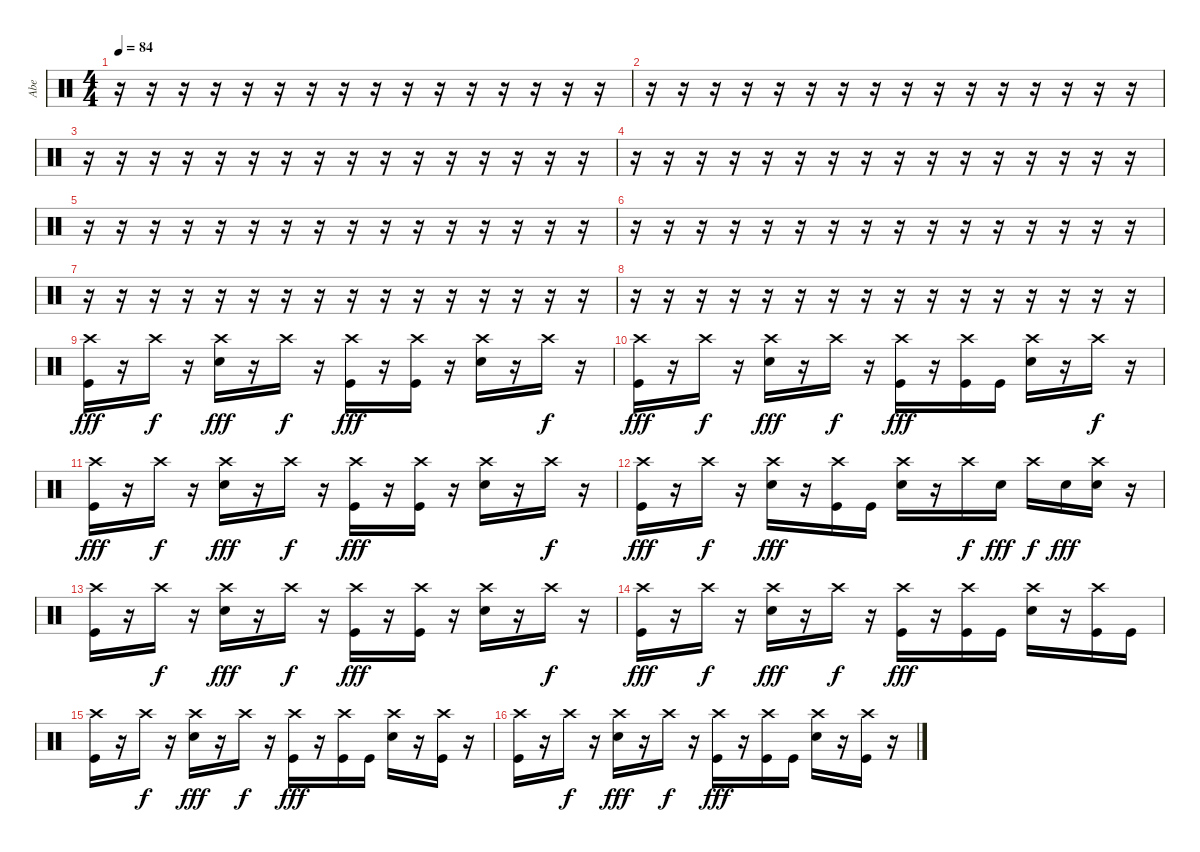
\track ("Abe" "Abe") {instrument percussion}
\staff {score}
\articulation defaults
\ts (4 4)
\tempo 84
\clef neutral
\ks c
r.16{dy f} r.16 r.16 r.16 r.16 r.16 r.16 r.16 r.16 r.16 r.16 r.16 r.16 r.16 r.16 r.16 |
r.16 r.16 r.16 r.16 r.16 r.16 r.16 r.16 r.16 r.16 r.16 r.16 r.16 r.16 r.16 r.16 |
r.16 r.16 r.16 r.16 r.16 r.16 r.16 r.16 r.16 r.16 r.16 r.16 r.16 r.16 r.16 r.16 |
r.16 r.16 r.16 r.16 r.16 r.16 r.16 r.16 r.16 r.16 r.16 r.16 r.16 r.16 r.16 r.16 |
r.16 r.16 r.16 r.16 r.16 r.16 r.16 r.16 r.16 r.16 r.16 r.16 r.16 r.16 r.16 r.16 |
r.16 r.16 r.16 r.16 r.16 r.16 r.16 r.16 r.16 r.16 r.16 r.16 r.16 r.16 r.16 r.16 |
r.16 r.16 r.16 r.16 r.16 r.16 r.16 r.16 r.16 r.16 r.16 r.16 r.16 r.16 r.16 r.16 |
r.16 r.16 r.16 r.16 r.16 r.16 r.16 r.16 r.16 r.16 r.16 r.16 r.16 r.16 r.16 r.16 |
("Crash high (hit)" "Kick (hit)").16{dy fff} r.16 "Crash high (hit)".16{dy f} r.16 ("Crash high (hit)" "Electric Snare (hit)").16{dy fff} r.16 "Crash high (hit)".16{dy f} r.16 ("Crash high (hit)" "Kick (hit)").16{dy fff} r.16 ("Crash high (hit)" "Kick (hit)").16 r.16 ("Crash high (hit)" "Electric Snare (hit)").16 r.16 "Crash high (hit)".16{dy f} r.16 |
("Crash high (hit)" "Kick (hit)").16{dy fff} r.16 "Crash high (hit)".16{dy f} r.16 ("Crash high (hit)" "Electric Snare (hit)").16{dy fff} r.16 "Crash high (hit)".16{dy f} r.16 ("Crash high (hit)" "Kick (hit)").16{dy fff} r.16 ("Crash high (hit)" "Kick (hit)").16 "Kick (hit)".16 ("Crash high (hit)" "Electric Snare (hit)").16 r.16 "Crash high (hit)".16{dy f} r.16 |
("Crash high (hit)" "Kick (hit)").16{dy fff} r.16 "Crash high (hit)".16{dy f} r.16 ("Crash high (hit)" "Electric Snare (hit)").16{dy fff} r.16 "Crash high (hit)".16{dy f} r.16 ("Crash high (hit)" "Kick (hit)").16{dy fff} r.16 ("Crash high (hit)" "Kick (hit)").16 r.16 ("Crash high (hit)" "Electric Snare (hit)").16 r.16 "Crash high (hit)".16{dy f} r.16 |
("Crash high (hit)" "Kick (hit)").16{dy fff} r.16 "Crash high (hit)".16{dy f} r.16 ("Crash high (hit)" "Electric Snare (hit)").16{dy fff} r.16 ("Crash high (hit)" "Kick (hit)").16 "Kick (hit)".16 ("Crash high (hit)" "Electric Snare (hit)").16 r.16 "Crash high (hit)".16{dy f} "Electric Snare (hit)".16{dy fff} "Crash high (hit)".16{dy f} "Electric Snare (hit)".16{dy fff} ("Crash high (hit)" "Electric Snare (hit)").16 r.16 |
("Crash high (hit)" "Kick (hit)").16 r.16 "Crash high (hit)".16{dy f} r.16 ("Crash high (hit)" "Electric Snare (hit)").16{dy fff} r.16 "Crash high (hit)".16{dy f} r.16 ("Crash high (hit)" "Kick (hit)").16{dy fff} r.16 ("Crash high (hit)" "Kick (hit)").16 r.16 ("Crash high (hit)" "Electric Snare (hit)").16 r.16 "Crash high (hit)".16{dy f} r.16 |
("Crash high (hit)" "Kick (hit)").16{dy fff} r.16 "Crash high (hit)".16{dy f} r.16 ("Crash high (hit)" "Electric Snare (hit)").16{dy fff} r.16 "Crash high (hit)".16{dy f} r.16 ("Crash high (hit)" "Kick (hit)").16{dy fff} r.16 ("Crash high (hit)" "Kick (hit)").16 "Kick (hit)".16 ("Crash high (hit)" "Electric Snare (hit)").16 r.16 ("Crash high (hit)" "Kick (hit)").16 "Kick (hit)".16 |
("Crash high (hit)" "Kick (hit)").16 r.16 "Crash high (hit)".16{dy f} r.16 ("Crash high (hit)" "Electric Snare (hit)").16{dy fff} r.16 "Crash high (hit)".16{dy f} r.16 ("Crash high (hit)" "Kick (hit)").16{dy fff} r.16 ("Crash high (hit)" "Kick (hit)").16 "Kick (hit)".16 ("Crash high (hit)" "Electric Snare (hit)").16 r.16 ("Crash high (hit)" "Kick (hit)").16 r.16 |
("Crash high (hit)" "Kick (hit)").16 r.16 "Crash high (hit)".16{dy f} r.16 ("Crash high (hit)" "Electric Snare (hit)").16{dy fff} r.16 "Crash high (hit)".16{dy f} r.16 ("Crash high (hit)" "Kick (hit)").16{dy fff} r.16 ("Crash high (hit)" "Kick (hit)").16 "Kick (hit)".16 ("Crash high (hit)" "Electric Snare (hit)").16 r.16 ("Crash high (hit)" "Kick (hit)").16 r.16
